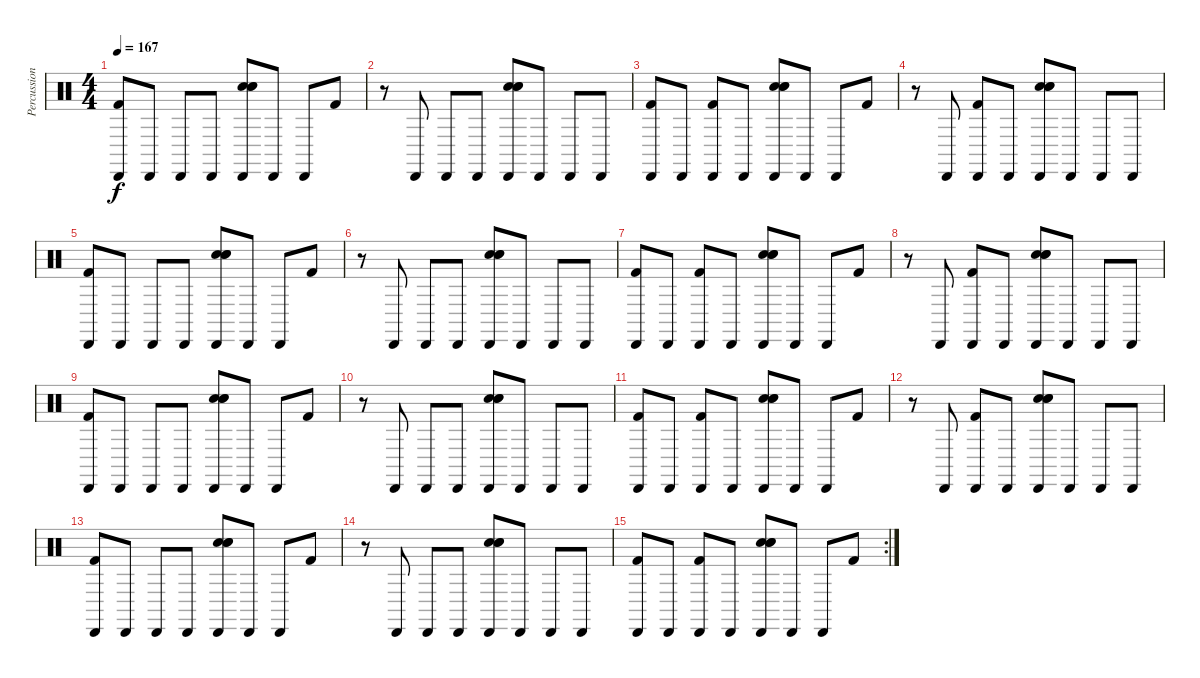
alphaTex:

\track ("Percussion" "Percussion") {instrument percussion}
\staff {score}
\articulation defaults
\ts (4 4)
\tempo 167
\clef neutral
\ks c
("Cabasa (hit)" "Kick (hit) 2").8{dy f} "Cabasa (hit)".8 "Cabasa (hit)".8 "Cabasa (hit)".8 ("Hand Clap (hit)" "Cabasa (hit)" "Electric Snare (hit)" "Snare (hit) 2").8 "Cabasa (hit)".8 "Cabasa (hit)".8 "Kick (hit) 2".8 |
r.8 "Cabasa (hit)".8 "Cabasa (hit)".8 "Cabasa (hit)".8 ("Hand Clap (hit)" "Cabasa (hit)" "Electric Snare (hit)" "Snare (hit) 2").8 "Cabasa (hit)".8 "Cabasa (hit)".8 "Cabasa (hit)".8 |
("Cabasa (hit)" "Kick (hit) 2").8 "Cabasa (hit)".8 ("Cabasa (hit)" "Kick (hit) 2").8 "Cabasa (hit)".8 ("Hand Clap (hit)" "Cabasa (hit)" "Electric Snare (hit)" "Snare (hit) 2").8 "Cabasa (hit)".8 "Cabasa (hit)".8 "Kick (hit) 2".8 |
r.8 "Cabasa (hit)".8 ("Cabasa (hit)" "Kick (hit) 2").8 "Cabasa (hit)".8 ("Hand Clap (hit)" "Cabasa (hit)" "Electric Snare (hit)" "Snare (hit) 2").8 "Cabasa (hit)".8 "Cabasa (hit)".8 "Cabasa (hit)".8 |
("Cabasa (hit)" "Kick (hit) 2").8 "Cabasa (hit)".8 "Cabasa (hit)".8 "Cabasa (hit)".8 ("Hand Clap (hit)" "Cabasa (hit)" "Electric Snare (hit)" "Snare (hit) 2").8 "Cabasa (hit)".8 "Cabasa (hit)".8 "Kick (hit) 2".8 |
r.8 "Cabasa (hit)".8 "Cabasa (hit)".8 "Cabasa (hit)".8 ("Hand Clap (hit)" "Cabasa (hit)" "Electric Snare (hit)" "Snare (hit) 2").8 "Cabasa (hit)".8 "Cabasa (hit)".8 "Cabasa (hit)".8 |
("Cabasa (hit)" "Kick (hit) 2").8 "Cabasa (hit)".8 ("Cabasa (hit)" "Kick (hit) 2").8 "Cabasa (hit)".8 ("Hand Clap (hit)" "Cabasa (hit)" "Electric Snare (hit)" "Snare (hit) 2").8 "Cabasa (hit)".8 "Cabasa (hit)".8 "Kick (hit) 2".8 |
r.8 "Cabasa (hit)".8 ("Cabasa (hit)" "Kick (hit) 2").8 "Cabasa (hit)".8 ("Hand Clap (hit)" "Cabasa (hit)" "Electric Snare (hit)" "Snare (hit) 2").8 "Cabasa (hit)".8 "Cabasa (hit)".8 "Cabasa (hit)".8 |
("Cabasa (hit)" "Kick (hit) 2").8 "Cabasa (hit)".8 "Cabasa (hit)".8 "Cabasa (hit)".8 ("Hand Clap (hit)" "Cabasa (hit)" "Electric Snare (hit)" "Snare (hit) 2").8 "Cabasa (hit)".8 "Cabasa (hit)".8 "Kick (hit) 2".8 |
r.8 "Cabasa (hit)".8 "Cabasa (hit)".8 "Cabasa (hit)".8 ("Hand Clap (hit)" "Cabasa (hit)" "Electric Snare (hit)" "Snare (hit) 2").8 "Cabasa (hit)".8 "Cabasa (hit)".8 "Cabasa (hit)".8 |
("Cabasa (hit)" "Kick (hit) 2").8 "Cabasa (hit)".8 ("Cabasa (hit)" "Kick (hit) 2").8 "Cabasa (hit)".8 ("Hand Clap (hit)" "Cabasa (hit)" "Electric Snare (hit)" "Snare (hit) 2").8 "Cabasa (hit)".8 "Cabasa (hit)".8 "Kick (hit) 2".8 |
r.8 "Cabasa (hit)".8 ("Cabasa (hit)" "Kick (hit) 2").8 "Cabasa (hit)".8 ("Hand Clap (hit)" "Cabasa (hit)" "Electric Snare (hit)" "Snare (hit) 2").8 "Cabasa (hit)".8 "Cabasa (hit)".8 "Cabasa (hit)".8 |
("Cabasa (hit)" "Kick (hit) 2").8 "Cabasa (hit)".8 "Cabasa (hit)".8 "Cabasa (hit)".8 ("Hand Clap (hit)" "Cabasa (hit)" "Electric Snare (hit)" "Snare (hit) 2").8 "Cabasa (hit)".8 "Cabasa (hit)".8 "Kick (hit) 2".8 |
r.8 "Cabasa (hit)".8 "Cabasa (hit)".8 "Cabasa (hit)".8 ("Hand Clap (hit)" "Cabasa (hit)" "Electric Snare (hit)" "Snare (hit) 2").8 "Cabasa (hit)".8 "Cabasa (hit)".8 "Cabasa (hit)".8 |
\rc 2
("Cabasa (hit)" "Kick (hit) 2").8 "Cabasa (hit)".8 ("Cabasa (hit)" "Kick (hit) 2").8 "Cabasa (hit)".8 ("Hand Clap (hit)" "Cabasa (hit)" "Electric Snare (hit)" "Snare (hit) 2").8 "Cabasa (hit)".8 "Cabasa (hit)".8 "Kick (hit) 2".8
